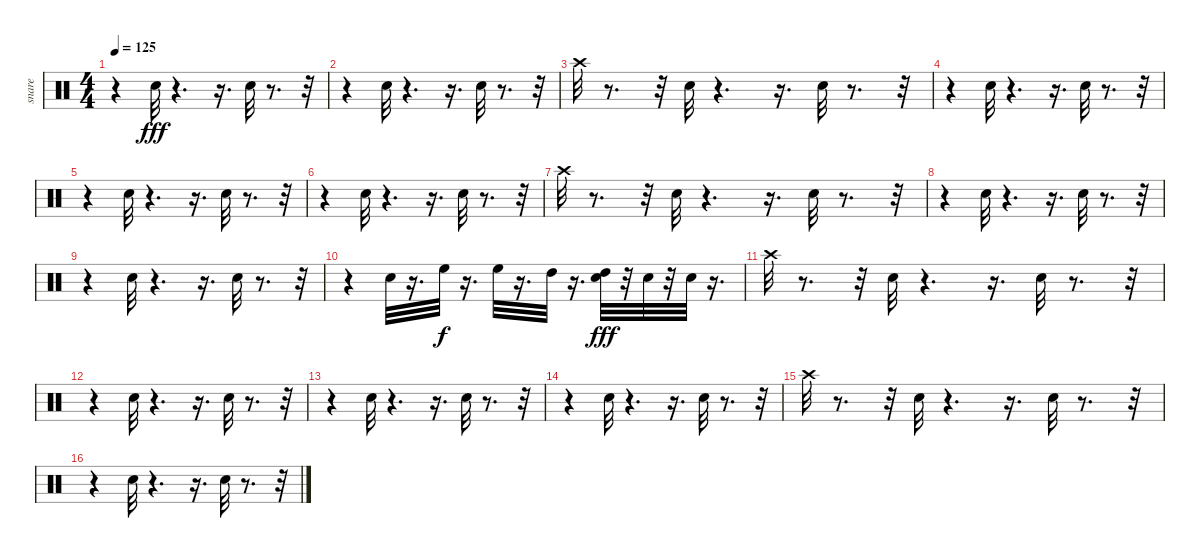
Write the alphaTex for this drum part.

\track ("snare" "snare") {instrument percussion}
\staff {score}
\articulation defaults
\ts (4 4)
\tempo 125
\clef neutral
\ks c
r.4{dy fff} "Electric Snare (hit)".32 r.4{d} r.16{d} "Electric Snare (hit)".32 r.8{d} r.32 |
r.4 "Electric Snare (hit)".32 r.4{d} r.16{d} "Electric Snare (hit)".32 r.8{d} r.32 |
"Crash high (hit)".32 r.8{d} r.32 "Electric Snare (hit)".32 r.4{d} r.16{d} "Electric Snare (hit)".32 r.8{d} r.32 |
r.4 "Electric Snare (hit)".32 r.4{d} r.16{d} "Electric Snare (hit)".32 r.8{d} r.32 |
r.4 "Electric Snare (hit)".32 r.4{d} r.16{d} "Electric Snare (hit)".32 r.8{d} r.32 |
r.4 "Electric Snare (hit)".32 r.4{d} r.16{d} "Electric Snare (hit)".32 r.8{d} r.32 |
"Crash high (hit)".32 r.8{d} r.32 "Electric Snare (hit)".32 r.4{d} r.16{d} "Electric Snare (hit)".32 r.8{d} r.32 |
r.4 "Electric Snare (hit)".32 r.4{d} r.16{d} "Electric Snare (hit)".32 r.8{d} r.32 |
r.4 "Electric Snare (hit)".32 r.4{d} r.16{d} "Electric Snare (hit)".32 r.8{d} r.32 |
r.4 "Electric Snare (hit)".32 r.16{d} "High Floor Tom (hit)".32{dy f} r.16{d} "High Floor Tom (hit)".32 r.16{d} "High Tom (hit)".32 r.16{d} ("High Tom (hit)" "Electric Snare (hit)").32{dy fff} r.32 "Electric Snare (hit)".32 r.32 "Electric Snare (hit)".32 r.16{d} |
"Crash high (hit)".32 r.8{d} r.32 "Electric Snare (hit)".32 r.4{d} r.16{d} "Electric Snare (hit)".32 r.8{d} r.32 |
r.4 "Electric Snare (hit)".32 r.4{d} r.16{d} "Electric Snare (hit)".32 r.8{d} r.32 |
r.4 "Electric Snare (hit)".32 r.4{d} r.16{d} "Electric Snare (hit)".32 r.8{d} r.32 |
r.4 "Electric Snare (hit)".32 r.4{d} r.16{d} "Electric Snare (hit)".32 r.8{d} r.32 |
"Crash high (hit)".32 r.8{d} r.32 "Electric Snare (hit)".32 r.4{d} r.16{d} "Electric Snare (hit)".32 r.8{d} r.32 |
r.4 "Electric Snare (hit)".32 r.4{d} r.16{d} "Electric Snare (hit)".32 r.8{d} r.32
